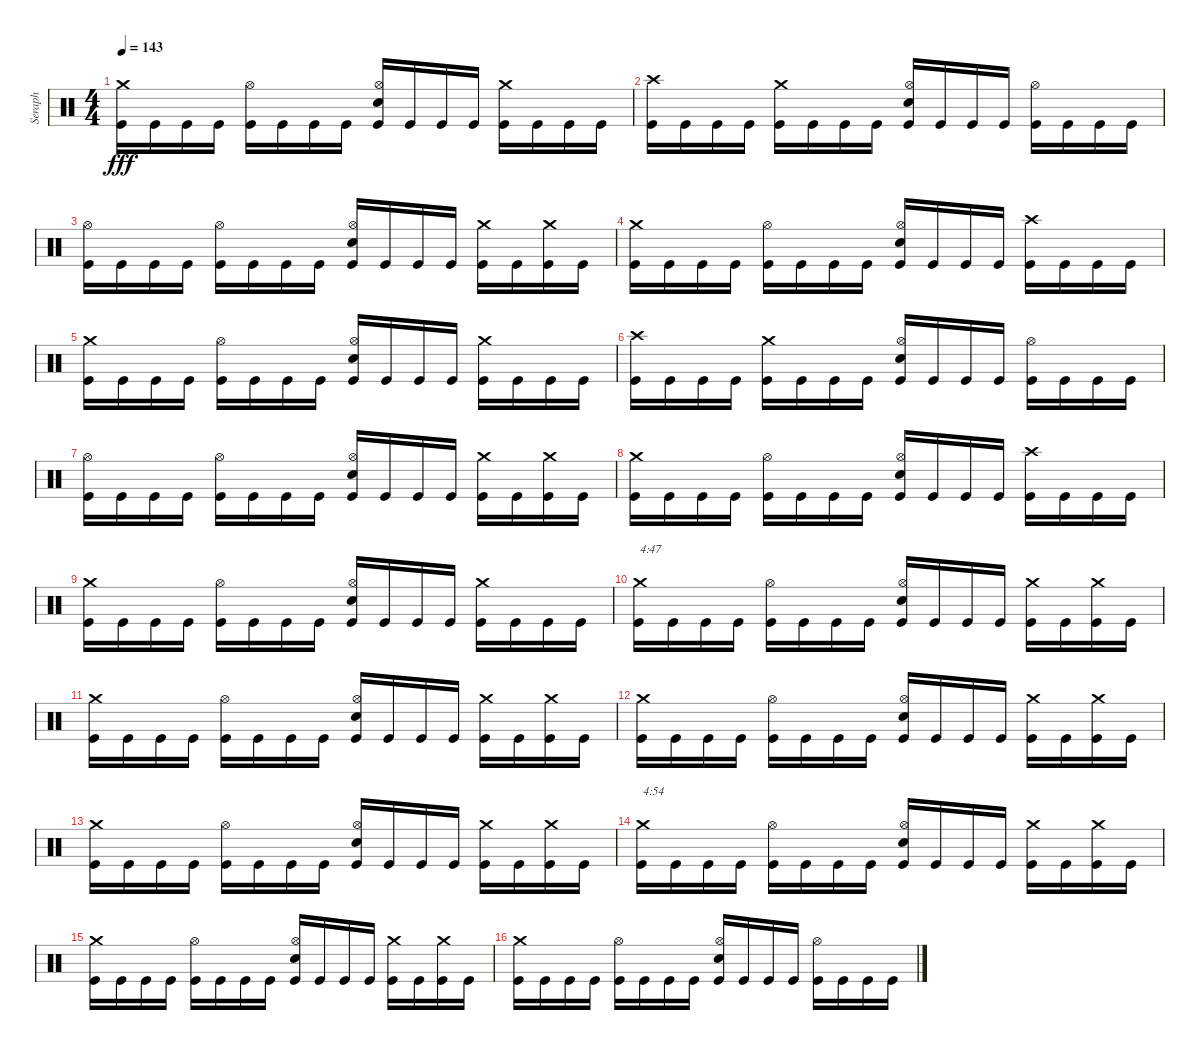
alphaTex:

\track ("Seraph" "Seraph") {instrument percussion}
\staff {score}
\articulation defaults
\ts (4 4)
\tempo 143
\clef neutral
\ks c
("Crash medium (hit)" "Kick (hit)").16{dy fff} "Kick (hit)".16 "Kick (hit)".16 "Kick (hit)".16 ("Hi-Hat (open)" "Kick (hit)").16 "Kick (hit)".16 "Kick (hit)".16 "Kick (hit)".16 ("Hi-Hat (open)" "Electric Snare (hit)" "Kick (hit)").16 "Kick (hit)".16 "Kick (hit)".16 "Kick (hit)".16 ("Crash medium (hit)" "Kick (hit)").16 "Kick (hit)".16 "Kick (hit)".16 "Kick (hit)".16 |
("Crash high (hit)" "Kick (hit)").16 "Kick (hit)".16 "Kick (hit)".16 "Kick (hit)".16 ("Crash medium (hit)" "Kick (hit)").16 "Kick (hit)".16 "Kick (hit)".16 "Kick (hit)".16 ("Hi-Hat (open)" "Electric Snare (hit)" "Kick (hit)").16 "Kick (hit)".16 "Kick (hit)".16 "Kick (hit)".16 ("Hi-Hat (open)" "Kick (hit)").16 "Kick (hit)".16 "Kick (hit)".16 "Kick (hit)".16 |
("Hi-Hat (open)" "Kick (hit)").16 "Kick (hit)".16 "Kick (hit)".16 "Kick (hit)".16 ("Hi-Hat (open)" "Kick (hit)").16 "Kick (hit)".16 "Kick (hit)".16 "Kick (hit)".16 ("Hi-Hat (open)" "Electric Snare (hit)" "Kick (hit)").16 "Kick (hit)".16 "Kick (hit)".16 "Kick (hit)".16 ("Crash medium (hit)" "Kick (hit)").16 "Kick (hit)".16 ("Crash medium (hit)" "Kick (hit)").16 "Kick (hit)".16 |
("Crash medium (hit)" "Kick (hit)").16 "Kick (hit)".16 "Kick (hit)".16 "Kick (hit)".16 ("Hi-Hat (open)" "Kick (hit)").16 "Kick (hit)".16 "Kick (hit)".16 "Kick (hit)".16 ("Hi-Hat (open)" "Electric Snare (hit)" "Kick (hit)").16 "Kick (hit)".16 "Kick (hit)".16 "Kick (hit)".16 ("Crash high (hit)" "Kick (hit)").16 "Kick (hit)".16 "Kick (hit)".16 "Kick (hit)".16 |
("Crash medium (hit)" "Kick (hit)").16 "Kick (hit)".16 "Kick (hit)".16 "Kick (hit)".16 ("Hi-Hat (open)" "Kick (hit)").16 "Kick (hit)".16 "Kick (hit)".16 "Kick (hit)".16 ("Hi-Hat (open)" "Electric Snare (hit)" "Kick (hit)").16 "Kick (hit)".16 "Kick (hit)".16 "Kick (hit)".16 ("Crash medium (hit)" "Kick (hit)").16 "Kick (hit)".16 "Kick (hit)".16 "Kick (hit)".16 |
("Crash high (hit)" "Kick (hit)").16 "Kick (hit)".16 "Kick (hit)".16 "Kick (hit)".16 ("Crash medium (hit)" "Kick (hit)").16 "Kick (hit)".16 "Kick (hit)".16 "Kick (hit)".16 ("Hi-Hat (open)" "Electric Snare (hit)" "Kick (hit)").16 "Kick (hit)".16 "Kick (hit)".16 "Kick (hit)".16 ("Hi-Hat (open)" "Kick (hit)").16 "Kick (hit)".16 "Kick (hit)".16 "Kick (hit)".16 |
("Hi-Hat (open)" "Kick (hit)").16 "Kick (hit)".16 "Kick (hit)".16 "Kick (hit)".16 ("Hi-Hat (open)" "Kick (hit)").16 "Kick (hit)".16 "Kick (hit)".16 "Kick (hit)".16 ("Hi-Hat (open)" "Electric Snare (hit)" "Kick (hit)").16 "Kick (hit)".16 "Kick (hit)".16 "Kick (hit)".16 ("Crash medium (hit)" "Kick (hit)").16 "Kick (hit)".16 ("Crash medium (hit)" "Kick (hit)").16 "Kick (hit)".16 |
("Crash medium (hit)" "Kick (hit)").16 "Kick (hit)".16 "Kick (hit)".16 "Kick (hit)".16 ("Hi-Hat (open)" "Kick (hit)").16 "Kick (hit)".16 "Kick (hit)".16 "Kick (hit)".16 ("Hi-Hat (open)" "Electric Snare (hit)" "Kick (hit)").16 "Kick (hit)".16 "Kick (hit)".16 "Kick (hit)".16 ("Crash high (hit)" "Kick (hit)").16 "Kick (hit)".16 "Kick (hit)".16 "Kick (hit)".16 |
("Crash medium (hit)" "Kick (hit)").16 "Kick (hit)".16 "Kick (hit)".16 "Kick (hit)".16 ("Hi-Hat (open)" "Kick (hit)").16 "Kick (hit)".16 "Kick (hit)".16 "Kick (hit)".16 ("Hi-Hat (open)" "Electric Snare (hit)" "Kick (hit)").16 "Kick (hit)".16 "Kick (hit)".16 "Kick (hit)".16 ("Crash medium (hit)" "Kick (hit)").16 "Kick (hit)".16 "Kick (hit)".16 "Kick (hit)".16 |
("Crash medium (hit)" "Kick (hit)").16{txt "4:47"} "Kick (hit)".16 "Kick (hit)".16 "Kick (hit)".16 ("Hi-Hat (open)" "Kick (hit)").16 "Kick (hit)".16 "Kick (hit)".16 "Kick (hit)".16 ("Hi-Hat (open)" "Electric Snare (hit)" "Kick (hit)").16 "Kick (hit)".16 "Kick (hit)".16 "Kick (hit)".16 ("Crash medium (hit)" "Kick (hit)").16 "Kick (hit)".16 ("Crash medium (hit)" "Kick (hit)").16 "Kick (hit)".16 |
("Crash medium (hit)" "Kick (hit)").16 "Kick (hit)".16 "Kick (hit)".16 "Kick (hit)".16 ("Hi-Hat (open)" "Kick (hit)").16 "Kick (hit)".16 "Kick (hit)".16 "Kick (hit)".16 ("Hi-Hat (open)" "Electric Snare (hit)" "Kick (hit)").16 "Kick (hit)".16 "Kick (hit)".16 "Kick (hit)".16 ("Crash medium (hit)" "Kick (hit)").16 "Kick (hit)".16 ("Crash medium (hit)" "Kick (hit)").16 "Kick (hit)".16 |
("Crash medium (hit)" "Kick (hit)").16 "Kick (hit)".16 "Kick (hit)".16 "Kick (hit)".16 ("Hi-Hat (open)" "Kick (hit)").16 "Kick (hit)".16 "Kick (hit)".16 "Kick (hit)".16 ("Hi-Hat (open)" "Electric Snare (hit)" "Kick (hit)").16 "Kick (hit)".16 "Kick (hit)".16 "Kick (hit)".16 ("Crash medium (hit)" "Kick (hit)").16 "Kick (hit)".16 ("Crash medium (hit)" "Kick (hit)").16 "Kick (hit)".16 |
("Crash medium (hit)" "Kick (hit)").16 "Kick (hit)".16 "Kick (hit)".16 "Kick (hit)".16 ("Hi-Hat (open)" "Kick (hit)").16 "Kick (hit)".16 "Kick (hit)".16 "Kick (hit)".16 ("Hi-Hat (open)" "Electric Snare (hit)" "Kick (hit)").16 "Kick (hit)".16 "Kick (hit)".16 "Kick (hit)".16 ("Crash medium (hit)" "Kick (hit)").16 "Kick (hit)".16 ("Crash medium (hit)" "Kick (hit)").16 "Kick (hit)".16 |
("Crash medium (hit)" "Kick (hit)").16{txt "4:54"} "Kick (hit)".16 "Kick (hit)".16 "Kick (hit)".16 ("Hi-Hat (open)" "Kick (hit)").16 "Kick (hit)".16 "Kick (hit)".16 "Kick (hit)".16 ("Hi-Hat (open)" "Electric Snare (hit)" "Kick (hit)").16 "Kick (hit)".16 "Kick (hit)".16 "Kick (hit)".16 ("Crash medium (hit)" "Kick (hit)").16 "Kick (hit)".16 ("Crash medium (hit)" "Kick (hit)").16 "Kick (hit)".16 |
("Crash medium (hit)" "Kick (hit)").16 "Kick (hit)".16 "Kick (hit)".16 "Kick (hit)".16 ("Hi-Hat (open)" "Kick (hit)").16 "Kick (hit)".16 "Kick (hit)".16 "Kick (hit)".16 ("Hi-Hat (open)" "Electric Snare (hit)" "Kick (hit)").16 "Kick (hit)".16 "Kick (hit)".16 "Kick (hit)".16 ("Crash medium (hit)" "Kick (hit)").16 "Kick (hit)".16 ("Crash medium (hit)" "Kick (hit)").16 "Kick (hit)".16 |
("Crash medium (hit)" "Kick (hit)").16 "Kick (hit)".16 "Kick (hit)".16 "Kick (hit)".16 ("Hi-Hat (open)" "Kick (hit)").16 "Kick (hit)".16 "Kick (hit)".16 "Kick (hit)".16 ("Hi-Hat (open)" "Electric Snare (hit)" "Kick (hit)").16 "Kick (hit)".16 "Kick (hit)".16 "Kick (hit)".16 ("Hi-Hat (open)" "Kick (hit)").16 "Kick (hit)".16 "Kick (hit)".16 "Kick (hit)".16
